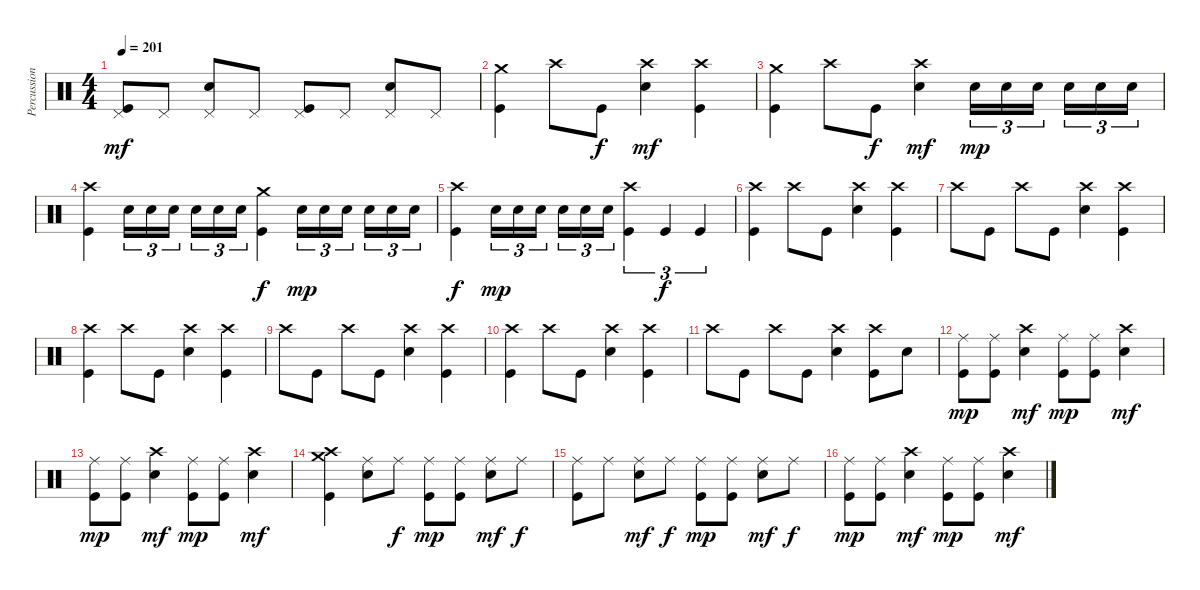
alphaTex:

\track ("Percussion" "Percussion") {instrument percussion}
\staff {score}
\articulation defaults
\ts (4 4)
\tempo 201
\clef neutral
\ks c
("Pedal Hi-Hat (hit)" "Kick (hit)").8{dy mf} "Pedal Hi-Hat (hit)".8 ("Pedal Hi-Hat (hit)" "Electric Snare (hit)").8 "Pedal Hi-Hat (hit)".8 ("Pedal Hi-Hat (hit)" "Kick (hit)").8 "Pedal Hi-Hat (hit)".8 ("Pedal Hi-Hat (hit)" "Electric Snare (hit)").8 "Pedal Hi-Hat (hit)".8 |
("Crash medium (hit)" "Kick (hit)").4 "Crash high (hit)".8 "Kick (hit)".8{dy f} ("Crash high (hit)" "Electric Snare (hit)").4{dy mf} ("Crash high (hit)" "Kick (hit)").4 |
("Crash medium (hit)" "Kick (hit)").4 "Crash high (hit)".8 "Kick (hit)".8{dy f} ("Crash high (hit)" "Electric Snare (hit)").4{dy mf} "Electric Snare (hit)".16{tu (3 2) dy mp} "Electric Snare (hit)".16{tu (3 2)} "Electric Snare (hit)".16{tu (3 2) beam splitsecondary} "Electric Snare (hit)".16{tu (3 2)} "Electric Snare (hit)".16{tu (3 2)} "Electric Snare (hit)".16{tu (3 2)} |
("Crash high (hit)" "Kick (hit)").4 "Electric Snare (hit)".16{tu (3 2)} "Electric Snare (hit)".16{tu (3 2)} "Electric Snare (hit)".16{tu (3 2) beam splitsecondary} "Electric Snare (hit)".16{tu (3 2)} "Electric Snare (hit)".16{tu (3 2)} "Electric Snare (hit)".16{tu (3 2)} ("Crash medium (hit)" "Kick (hit)").4{dy f} "Electric Snare (hit)".16{tu (3 2) dy mp} "Electric Snare (hit)".16{tu (3 2)} "Electric Snare (hit)".16{tu (3 2) beam splitsecondary} "Electric Snare (hit)".16{tu (3 2)} "Electric Snare (hit)".16{tu (3 2)} "Electric Snare (hit)".16{tu (3 2)} |
("Crash high (hit)" "Kick (hit)").4{dy f} "Electric Snare (hit)".16{tu (3 2) dy mp} "Electric Snare (hit)".16{tu (3 2)} "Electric Snare (hit)".16{tu (3 2) beam splitsecondary} "Electric Snare (hit)".16{tu (3 2)} "Electric Snare (hit)".16{tu (3 2)} "Electric Snare (hit)".16{tu (3 2)} ("Crash high (hit)" "Kick (hit)").4{tu (3 2)} "Kick (hit)".4{tu (3 2) dy f} "Kick (hit)".4{tu (3 2)} |
("Crash high (hit)" "Kick (hit)").4 "Crash high (hit)".8 "Kick (hit)".8 ("Crash high (hit)" "Electric Snare (hit)").4 ("Crash high (hit)" "Kick (hit)").4 |
"Crash high (hit)".8 "Kick (hit)".8 "Crash high (hit)".8 "Kick (hit)".8 ("Crash high (hit)" "Electric Snare (hit)").4 ("Crash high (hit)" "Kick (hit)").4 |
("Crash high (hit)" "Kick (hit)").4 "Crash high (hit)".8 "Kick (hit)".8 ("Crash high (hit)" "Electric Snare (hit)").4 ("Crash high (hit)" "Kick (hit)").4 |
"Crash high (hit)".8 "Kick (hit)".8 "Crash high (hit)".8 "Kick (hit)".8 ("Crash high (hit)" "Electric Snare (hit)").4 ("Crash high (hit)" "Kick (hit)").4 |
("Crash high (hit)" "Kick (hit)").4 "Crash high (hit)".8 "Kick (hit)".8 ("Crash high (hit)" "Electric Snare (hit)").4 ("Crash high (hit)" "Kick (hit)").4 |
"Crash high (hit)".8 "Kick (hit)".8 "Crash high (hit)".8 "Kick (hit)".8 ("Crash high (hit)" "Electric Snare (hit)").4 ("Crash high (hit)" "Kick (hit)").8 "Electric Snare (hit)".8 |
("Ride (middle)" "Kick (hit)").8{dy mp} ("Ride (middle)" "Kick (hit)").8 ("Crash high (hit)" "Electric Snare (hit)").4{dy mf} ("Ride (middle)" "Kick (hit)").8{dy mp} ("Ride (middle)" "Kick (hit)").8 ("Crash high (hit)" "Electric Snare (hit)").4{dy mf} |
("Ride (middle)" "Kick (hit)").8{dy mp} ("Ride (middle)" "Kick (hit)").8 ("Crash high (hit)" "Electric Snare (hit)").4{dy mf} ("Ride (middle)" "Kick (hit)").8{dy mp} ("Ride (middle)" "Kick (hit)").8 ("Crash high (hit)" "Electric Snare (hit)").4{dy mf} |
("Crash medium (hit)" "Crash high (hit)" "Kick (hit)").4 ("Ride (middle)" "Electric Snare (hit)").8 "Ride (middle)".8{dy f} ("Ride (middle)" "Kick (hit)").8{dy mp} ("Ride (middle)" "Kick (hit)").8 ("Ride (middle)" "Electric Snare (hit)").8{dy mf} "Ride (middle)".8{dy f} |
("Ride (middle)" "Kick (hit)").8 "Ride (middle)".8 ("Ride (middle)" "Electric Snare (hit)").8{dy mf} "Ride (middle)".8{dy f} ("Ride (middle)" "Kick (hit)").8{dy mp} ("Ride (middle)" "Kick (hit)").8 ("Ride (middle)" "Electric Snare (hit)").8{dy mf} "Ride (middle)".8{dy f} |
("Ride (middle)" "Kick (hit)").8{dy mp} ("Ride (middle)" "Kick (hit)").8 ("Crash high (hit)" "Electric Snare (hit)").4{dy mf} ("Ride (middle)" "Kick (hit)").8{dy mp} ("Ride (middle)" "Kick (hit)").8 ("Crash high (hit)" "Electric Snare (hit)").4{dy mf}
